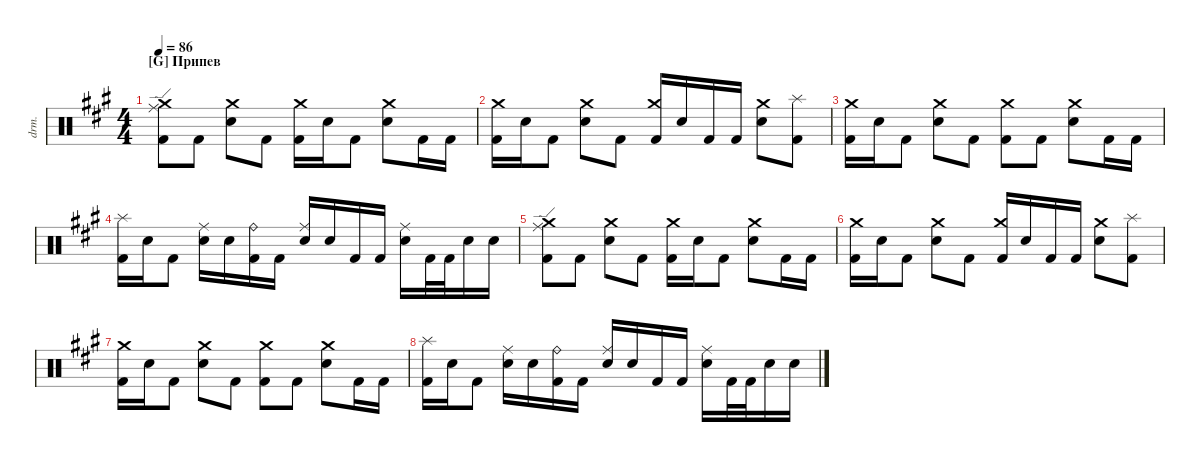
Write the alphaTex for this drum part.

\defaultSystemsLayout 4
\hideDynamics
\bracketExtendMode nobrackets
\track ("Drumkit" "drm.") {instrument percussion}
\staff {score}
\articulation defaults
\ts (4 4)
\section ("G" "Припев")
\tempo 86
\clef neutral
\ks f#minor
("Kick (hit) 2"{acc forcenatural} "Crash medium (hit)"{acc forcenatural} "Ride (edge)"{acc forcenatural}).8{dy mf beam Down} "Kick (hit) 2"{acc forcenatural}.8{beam Down} ("Snare (hit) 2"{acc forcenatural} "Crash medium (hit)"{acc forcenatural}).8{beam Down} "Kick (hit) 2"{acc forcenatural}.8{beam Down} ("Kick (hit) 2"{acc forcenatural} "Crash medium (hit)"{acc forcenatural}).16{beam Down} "Snare (hit) 2"{acc forcenatural}.16{beam Down} "Kick (hit) 2"{acc forcenatural}.8{beam Down} ("Snare (hit) 2"{acc forcenatural} "Crash medium (hit)"{acc forcenatural}).8{beam Down} "Kick (hit) 2"{acc forcenatural}.16{beam Down} "Kick (hit) 2"{acc forcenatural}.16{beam Down} |
("Kick (hit) 2"{acc forcenatural} "Crash medium (hit)"{acc forcenatural}).16{beam Down} "Snare (hit) 2"{acc forcenatural}.16{beam Down} "Kick (hit) 2"{acc forcenatural}.8{beam Down} ("Snare (hit) 2"{acc forcenatural} "Crash medium (hit)"{acc forcenatural}).8{beam Down} "Kick (hit) 2"{acc forcenatural}.8{beam Down} ("Kick (hit) 2"{acc forcenatural} "Crash medium (hit)"{acc forcenatural}).16{beam Up} "Snare (hit) 2"{acc forcenatural}.16{beam Up} "Kick (hit) 2"{acc forcenatural}.16{beam Up} "Kick (hit) 2"{acc forcenatural}.16{beam Up} ("Snare (hit) 2"{acc forcenatural} "Crash medium (hit)"{acc forcenatural}).8{beam Down} ("Kick (hit) 2"{acc forcenatural} "Splash (hit)"{acc forcenatural}).8{beam Down} |
("Kick (hit) 2"{acc forcenatural} "Crash medium (hit)"{acc forcenatural}).16{beam Down} "Snare (hit) 2"{acc forcenatural}.16{beam Down} "Kick (hit) 2"{acc forcenatural}.8{beam Down} ("Snare (hit) 2"{acc forcenatural} "Crash medium (hit)"{acc forcenatural}).8{beam Down} "Kick (hit) 2"{acc forcenatural}.8{beam Down} ("Kick (hit) 2"{acc forcenatural} "Crash medium (hit)"{acc forcenatural}).8{beam Down} "Kick (hit) 2"{acc forcenatural}.8{beam Down} ("Snare (hit) 2"{acc forcenatural} "Crash medium (hit)"{acc forcenatural}).8{beam Down} "Kick (hit) 2"{acc forcenatural}.16{beam Down} "Kick (hit) 2"{acc forcenatural}.16{beam Down} |
("Kick (hit) 2"{acc forcenatural} "Splash (hit)"{acc forcenatural}).16{beam Down} "Snare (hit) 2"{acc forcenatural}.16{beam Down} "Kick (hit) 2"{acc forcenatural}.8{beam Down} ("Snare (hit) 2"{acc forcenatural} "Ride (middle)"{acc forcenatural}).16{beam Down} "Snare (hit) 2"{acc forcenatural}.16{beam Down} ("Kick (hit) 2"{acc forcenatural} "Ride (bell)"{acc forcenatural}).16{beam Down} "Kick (hit) 2"{acc forcenatural}.16{beam Down} ("Snare (hit) 2"{acc forcenatural} "Ride (middle)"{acc forcenatural}).16{beam Up} "Snare (hit) 2"{acc forcenatural}.16{beam Up} "Kick (hit) 2"{acc forcenatural}.16{beam Up} "Kick (hit) 2"{acc forcenatural}.16{beam Up} ("Snare (hit) 2"{acc forcenatural} "Ride (middle)"{acc forcenatural}).16{beam Down} "Kick (hit) 2"{acc forcenatural}.32{beam Down} "Kick (hit) 2"{acc forcenatural}.32{beam Down} "Snare (hit) 2"{acc forcenatural}.16{beam Down} "Snare (hit) 2"{acc forcenatural}.16{beam Down} |
("Kick (hit) 2"{acc forcenatural} "Crash medium (hit)"{acc forcenatural} "Ride (edge)"{acc forcenatural}).8{beam Down} "Kick (hit) 2"{acc forcenatural}.8{beam Down} ("Snare (hit) 2"{acc forcenatural} "Crash medium (hit)"{acc forcenatural}).8{beam Down} "Kick (hit) 2"{acc forcenatural}.8{beam Down} ("Kick (hit) 2"{acc forcenatural} "Crash medium (hit)"{acc forcenatural}).16{beam Down} "Snare (hit) 2"{acc forcenatural}.16{beam Down} "Kick (hit) 2"{acc forcenatural}.8{beam Down} ("Snare (hit) 2"{acc forcenatural} "Crash medium (hit)"{acc forcenatural}).8{beam Down} "Kick (hit) 2"{acc forcenatural}.16{beam Down} "Kick (hit) 2"{acc forcenatural}.16{beam Down} |
("Kick (hit) 2"{acc forcenatural} "Crash medium (hit)"{acc forcenatural}).16{beam Down} "Snare (hit) 2"{acc forcenatural}.16{beam Down} "Kick (hit) 2"{acc forcenatural}.8{beam Down} ("Snare (hit) 2"{acc forcenatural} "Crash medium (hit)"{acc forcenatural}).8{beam Down} "Kick (hit) 2"{acc forcenatural}.8{beam Down} ("Kick (hit) 2"{acc forcenatural} "Crash medium (hit)"{acc forcenatural}).16{beam Up} "Snare (hit) 2"{acc forcenatural}.16{beam Up} "Kick (hit) 2"{acc forcenatural}.16{beam Up} "Kick (hit) 2"{acc forcenatural}.16{beam Up} ("Snare (hit) 2"{acc forcenatural} "Crash medium (hit)"{acc forcenatural}).8{beam Down} ("Kick (hit) 2"{acc forcenatural} "Splash (hit)"{acc forcenatural}).8{beam Down} |
("Kick (hit) 2"{acc forcenatural} "Crash medium (hit)"{acc forcenatural}).16{beam Down} "Snare (hit) 2"{acc forcenatural}.16{beam Down} "Kick (hit) 2"{acc forcenatural}.8{beam Down} ("Snare (hit) 2"{acc forcenatural} "Crash medium (hit)"{acc forcenatural}).8{beam Down} "Kick (hit) 2"{acc forcenatural}.8{beam Down} ("Kick (hit) 2"{acc forcenatural} "Crash medium (hit)"{acc forcenatural}).8{beam Down} "Kick (hit) 2"{acc forcenatural}.8{beam Down} ("Snare (hit) 2"{acc forcenatural} "Crash medium (hit)"{acc forcenatural}).8{beam Down} "Kick (hit) 2"{acc forcenatural}.16{beam Down} "Kick (hit) 2"{acc forcenatural}.16{beam Down} |
("Kick (hit) 2"{acc forcenatural} "Splash (hit)"{acc forcenatural}).16{beam Down} "Snare (hit) 2"{acc forcenatural}.16{beam Down} "Kick (hit) 2"{acc forcenatural}.8{beam Down} ("Snare (hit) 2"{acc forcenatural} "Ride (middle)"{acc forcenatural}).16{beam Down} "Snare (hit) 2"{acc forcenatural}.16{beam Down} ("Kick (hit) 2"{acc forcenatural} "Ride (bell)"{acc forcenatural}).16{beam Down} "Kick (hit) 2"{acc forcenatural}.16{beam Down} ("Snare (hit) 2"{acc forcenatural} "Ride (middle)"{acc forcenatural}).16{beam Up} "Snare (hit) 2"{acc forcenatural}.16{beam Up} "Kick (hit) 2"{acc forcenatural}.16{beam Up} "Kick (hit) 2"{acc forcenatural}.16{beam Up} ("Snare (hit) 2"{acc forcenatural} "Ride (middle)"{acc forcenatural}).16{beam Down} "Kick (hit) 2"{acc forcenatural}.32{beam Down} "Kick (hit) 2"{acc forcenatural}.32{beam Down} "Snare (hit) 2"{acc forcenatural}.16{beam Down} "Snare (hit) 2"{acc forcenatural}.16{beam Down}
